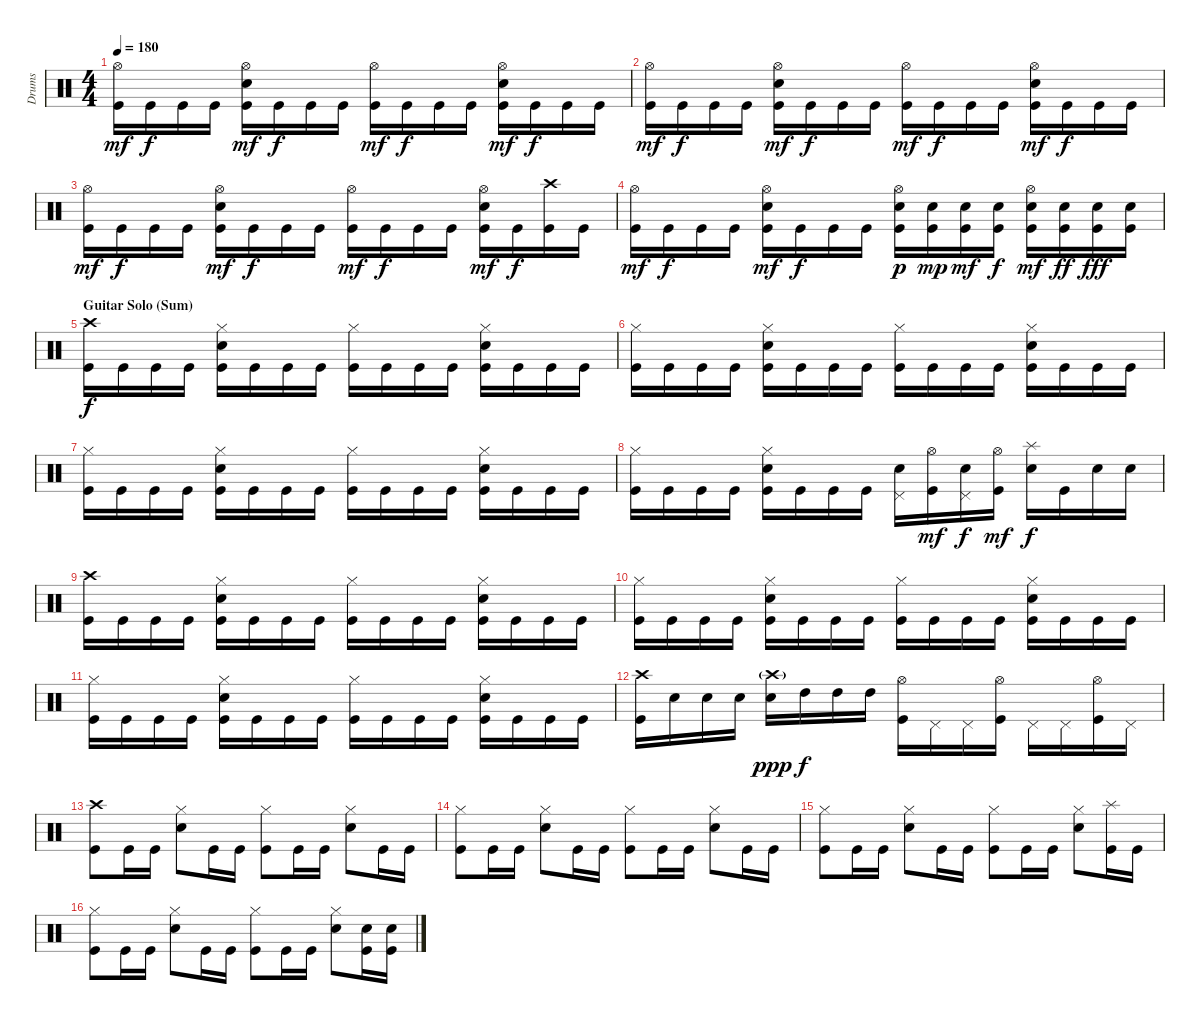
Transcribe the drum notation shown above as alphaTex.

\track ("Drums" "Drums") {instrument percussion}
\staff {score}
\articulation defaults
\ts (4 4)
\tempo 180
\clef neutral
\ks c
("Hi-Hat (open)" "Kick (hit)").16{dy mf} "Kick (hit)".16{dy f} "Kick (hit)".16 "Kick (hit)".16 ("Hi-Hat (open)" "Electric Snare (hit)" "Kick (hit)").16{dy mf} "Kick (hit)".16{dy f} "Kick (hit)".16 "Kick (hit)".16 ("Hi-Hat (open)" "Kick (hit)").16{dy mf} "Kick (hit)".16{dy f} "Kick (hit)".16 "Kick (hit)".16 ("Hi-Hat (open)" "Electric Snare (hit)" "Kick (hit)").16{dy mf} "Kick (hit)".16{dy f} "Kick (hit)".16 "Kick (hit)".16 |
("Hi-Hat (open)" "Kick (hit)").16{dy mf} "Kick (hit)".16{dy f} "Kick (hit)".16 "Kick (hit)".16 ("Hi-Hat (open)" "Electric Snare (hit)" "Kick (hit)").16{dy mf} "Kick (hit)".16{dy f} "Kick (hit)".16 "Kick (hit)".16 ("Hi-Hat (open)" "Kick (hit)").16{dy mf} "Kick (hit)".16{dy f} "Kick (hit)".16 "Kick (hit)".16 ("Hi-Hat (open)" "Electric Snare (hit)" "Kick (hit)").16{dy mf} "Kick (hit)".16{dy f} "Kick (hit)".16 "Kick (hit)".16 |
("Hi-Hat (open)" "Kick (hit)").16{dy mf} "Kick (hit)".16{dy f} "Kick (hit)".16 "Kick (hit)".16 ("Hi-Hat (open)" "Electric Snare (hit)" "Kick (hit)").16{dy mf} "Kick (hit)".16{dy f} "Kick (hit)".16 "Kick (hit)".16 ("Hi-Hat (open)" "Kick (hit)").16{dy mf} "Kick (hit)".16{dy f} "Kick (hit)".16 "Kick (hit)".16 ("Hi-Hat (open)" "Electric Snare (hit)" "Kick (hit)").16{dy mf} "Kick (hit)".16{dy f} ("Crash high (hit)" "Kick (hit)").16 "Kick (hit)".16 |
("Hi-Hat (open)" "Kick (hit)").16{dy mf} "Kick (hit)".16{dy f} "Kick (hit)".16 "Kick (hit)".16 ("Hi-Hat (open)" "Electric Snare (hit)" "Kick (hit)").16{dy mf} "Kick (hit)".16{dy f} "Kick (hit)".16 "Kick (hit)".16 ("Hi-Hat (open)" "Electric Snare (hit)" "Kick (hit)").16{dy p} ("Electric Snare (hit)" "Kick (hit)").16{dy mp} ("Electric Snare (hit)" "Kick (hit)").16{dy mf} ("Electric Snare (hit)" "Kick (hit)").16{dy f} ("Hi-Hat (open)" "Electric Snare (hit)" "Kick (hit)").16{dy mf} ("Electric Snare (hit)" "Kick (hit)").16{dy ff} ("Electric Snare (hit)" "Kick (hit)").16{dy fff} ("Electric Snare (hit)" "Kick (hit)").16 |
\section ("" "Guitar Solo (Sum)")
("Crash high (hit)" "Kick (hit)").16{dy f} "Kick (hit)".16 "Kick (hit)".16 "Kick (hit)".16 ("Hi-Hat (closed)" "Electric Snare (hit)" "Kick (hit)").16 "Kick (hit)".16 "Kick (hit)".16 "Kick (hit)".16 ("Hi-Hat (closed)" "Kick (hit)").16 "Kick (hit)".16 "Kick (hit)".16 "Kick (hit)".16 ("Hi-Hat (closed)" "Electric Snare (hit)" "Kick (hit)").16 "Kick (hit)".16 "Kick (hit)".16 "Kick (hit)".16 |
("Hi-Hat (closed)" "Kick (hit)").16 "Kick (hit)".16 "Kick (hit)".16 "Kick (hit)".16 ("Hi-Hat (closed)" "Electric Snare (hit)" "Kick (hit)").16 "Kick (hit)".16 "Kick (hit)".16 "Kick (hit)".16 ("Hi-Hat (closed)" "Kick (hit)").16 "Kick (hit)".16 "Kick (hit)".16 "Kick (hit)".16 ("Hi-Hat (closed)" "Electric Snare (hit)" "Kick (hit)").16 "Kick (hit)".16 "Kick (hit)".16 "Kick (hit)".16 |
("Hi-Hat (closed)" "Kick (hit)").16 "Kick (hit)".16 "Kick (hit)".16 "Kick (hit)".16 ("Hi-Hat (closed)" "Electric Snare (hit)" "Kick (hit)").16 "Kick (hit)".16 "Kick (hit)".16 "Kick (hit)".16 ("Hi-Hat (closed)" "Kick (hit)").16 "Kick (hit)".16 "Kick (hit)".16 "Kick (hit)".16 ("Hi-Hat (closed)" "Electric Snare (hit)" "Kick (hit)").16 "Kick (hit)".16 "Kick (hit)".16 "Kick (hit)".16 |
("Hi-Hat (closed)" "Kick (hit)").16 "Kick (hit)".16 "Kick (hit)".16 "Kick (hit)".16 ("Hi-Hat (closed)" "Electric Snare (hit)" "Kick (hit)").16 "Kick (hit)".16 "Kick (hit)".16 "Kick (hit)".16 ("Pedal Hi-Hat (hit)" "Electric Snare (hit)").16 ("Hi-Hat (open)" "Kick (hit)").16{dy mf} ("Pedal Hi-Hat (hit)" "Electric Snare (hit)").16{dy f} ("Hi-Hat (open)" "Kick (hit)").16{dy mf} ("Splash (hit)" "Electric Snare (hit)").16{dy f} "Kick (hit)".16 "Electric Snare (hit)".16 "Electric Snare (hit)".16 |
("Crash high (hit)" "Kick (hit)").16 "Kick (hit)".16 "Kick (hit)".16 "Kick (hit)".16 ("Hi-Hat (closed)" "Electric Snare (hit)" "Kick (hit)").16 "Kick (hit)".16 "Kick (hit)".16 "Kick (hit)".16 ("Hi-Hat (closed)" "Kick (hit)").16 "Kick (hit)".16 "Kick (hit)".16 "Kick (hit)".16 ("Hi-Hat (closed)" "Electric Snare (hit)" "Kick (hit)").16 "Kick (hit)".16 "Kick (hit)".16 "Kick (hit)".16 |
("Hi-Hat (closed)" "Kick (hit)").16 "Kick (hit)".16 "Kick (hit)".16 "Kick (hit)".16 ("Hi-Hat (closed)" "Electric Snare (hit)" "Kick (hit)").16 "Kick (hit)".16 "Kick (hit)".16 "Kick (hit)".16 ("Hi-Hat (closed)" "Kick (hit)").16 "Kick (hit)".16 "Kick (hit)".16 "Kick (hit)".16 ("Hi-Hat (closed)" "Electric Snare (hit)" "Kick (hit)").16 "Kick (hit)".16 "Kick (hit)".16 "Kick (hit)".16 |
("Hi-Hat (closed)" "Kick (hit)").16 "Kick (hit)".16 "Kick (hit)".16 "Kick (hit)".16 ("Hi-Hat (closed)" "Electric Snare (hit)" "Kick (hit)").16 "Kick (hit)".16 "Kick (hit)".16 "Kick (hit)".16 ("Hi-Hat (closed)" "Kick (hit)").16 "Kick (hit)".16 "Kick (hit)".16 "Kick (hit)".16 ("Hi-Hat (closed)" "Electric Snare (hit)" "Kick (hit)").16 "Kick (hit)".16 "Kick (hit)".16 "Kick (hit)".16 |
("Crash high (hit)" "Kick (hit)").16 "Electric Snare (hit)".16 "Electric Snare (hit)".16 "Electric Snare (hit)".16 ("Crash high (hit)"{g} "Electric Snare (hit)").16{dy ppp} "High Tom (hit)".16{dy f} "High Tom (hit)".16 "High Tom (hit)".16 ("Hi-Hat (open)" "Kick (hit)").16 "Pedal Hi-Hat (hit)".16 "Pedal Hi-Hat (hit)".16 ("Hi-Hat (open)" "Kick (hit)").16 "Pedal Hi-Hat (hit)".16 "Pedal Hi-Hat (hit)".16 ("Hi-Hat (open)" "Kick (hit)").16 "Pedal Hi-Hat (hit)".16 |
("Crash high (hit)" "Kick (hit)").8 "Kick (hit)".16 "Kick (hit)".16 ("Hi-Hat (closed)" "Electric Snare (hit)").8 "Kick (hit)".16 "Kick (hit)".16 ("Hi-Hat (closed)" "Kick (hit)").8 "Kick (hit)".16 "Kick (hit)".16 ("Hi-Hat (closed)" "Electric Snare (hit)").8 "Kick (hit)".16 "Kick (hit)".16 |
("Hi-Hat (closed)" "Kick (hit)").8 "Kick (hit)".16 "Kick (hit)".16 ("Hi-Hat (closed)" "Electric Snare (hit)").8 "Kick (hit)".16 "Kick (hit)".16 ("Hi-Hat (closed)" "Kick (hit)").8 "Kick (hit)".16 "Kick (hit)".16 ("Hi-Hat (closed)" "Electric Snare (hit)").8 "Kick (hit)".16 "Kick (hit)".16 |
("Hi-Hat (closed)" "Kick (hit)").8 "Kick (hit)".16 "Kick (hit)".16 ("Hi-Hat (closed)" "Electric Snare (hit)").8 "Kick (hit)".16 "Kick (hit)".16 ("Hi-Hat (closed)" "Kick (hit)").8 "Kick (hit)".16 "Kick (hit)".16 ("Hi-Hat (closed)" "Electric Snare (hit)").8 ("Splash (hit)" "Kick (hit)").16 "Kick (hit)".16 |
("Hi-Hat (closed)" "Kick (hit)").8 "Kick (hit)".16 "Kick (hit)".16 ("Hi-Hat (closed)" "Electric Snare (hit)").8 "Kick (hit)".16 "Kick (hit)".16 ("Hi-Hat (closed)" "Kick (hit)").8 "Kick (hit)".16 "Kick (hit)".16 ("Hi-Hat (closed)" "Electric Snare (hit)").8 ("Electric Snare (hit)" "Kick (hit)").16 ("Electric Snare (hit)" "Kick (hit)").16
